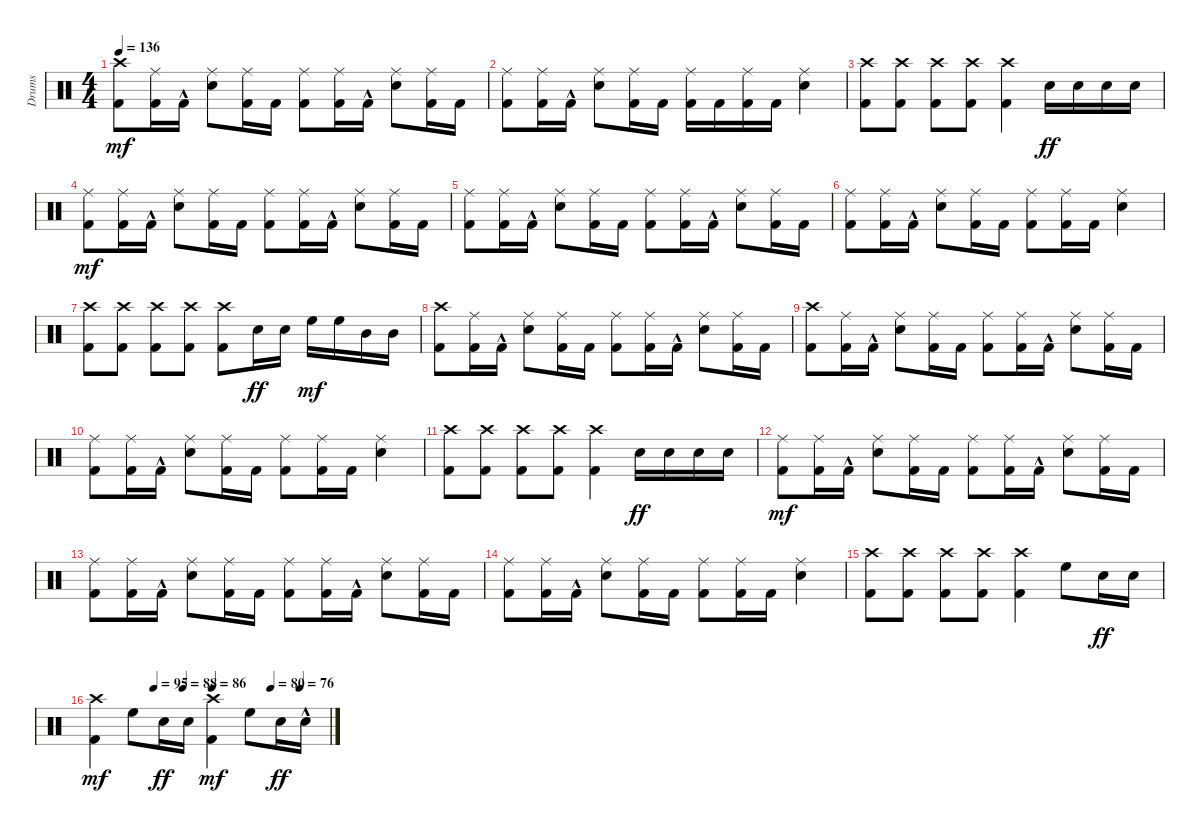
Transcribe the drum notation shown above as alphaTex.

\track ("Drums" "Drums") {instrument percussion}
\staff {score}
\articulation defaults
\ts (4 4)
\tempo 136
\clef neutral
\ks c
("Kick (hit) 2" "Crash high (hit)").8{dy mf} ("Kick (hit) 2" "Ride (middle)").16 "Kick (hit) 2"{hac}.16 ("Snare (hit) 2" "Ride (middle)").8 ("Kick (hit) 2" "Ride (middle)").16 "Kick (hit) 2".16 ("Kick (hit) 2" "Ride (middle)").8 ("Kick (hit) 2" "Ride (middle)").16 "Kick (hit) 2"{hac}.16 ("Snare (hit) 2" "Ride (middle)").8 ("Kick (hit) 2" "Ride (middle)").16 "Kick (hit) 2".16 |
("Kick (hit) 2" "Ride (middle)").8 ("Kick (hit) 2" "Ride (middle)").16 "Kick (hit) 2"{hac}.16 ("Snare (hit) 2" "Ride (middle)").8 ("Kick (hit) 2" "Ride (middle)").16 "Kick (hit) 2".16 ("Kick (hit) 2" "Ride (middle)").16 "Kick (hit) 2".16 ("Kick (hit) 2" "Ride (middle)").16 "Kick (hit) 2".16 ("Snare (hit) 2" "Ride (middle)").4 |
("Kick (hit) 2" "Crash high (hit)").8 ("Kick (hit) 2" "Crash high (hit)").8 ("Kick (hit) 2" "Crash high (hit)").8 ("Kick (hit) 2" "Crash high (hit)").8 ("Kick (hit) 2" "Crash high (hit)").4 "Snare (hit) 2".16{dy ff} "Snare (hit) 2".16 "Snare (hit) 2".16 "Snare (hit) 2".16 |
("Kick (hit) 2" "Ride (middle)").8{dy mf} ("Kick (hit) 2" "Ride (middle)").16 "Kick (hit) 2"{hac}.16 ("Snare (hit) 2" "Ride (middle)").8 ("Kick (hit) 2" "Ride (middle)").16 "Kick (hit) 2".16 ("Kick (hit) 2" "Ride (middle)").8 ("Kick (hit) 2" "Ride (middle)").16 "Kick (hit) 2"{hac}.16 ("Snare (hit) 2" "Ride (middle)").8 ("Kick (hit) 2" "Ride (middle)").16 "Kick (hit) 2".16 |
("Kick (hit) 2" "Ride (middle)").8 ("Kick (hit) 2" "Ride (middle)").16 "Kick (hit) 2"{hac}.16 ("Snare (hit) 2" "Ride (middle)").8 ("Kick (hit) 2" "Ride (middle)").16 "Kick (hit) 2".16 ("Kick (hit) 2" "Ride (middle)").8 ("Kick (hit) 2" "Ride (middle)").16 "Kick (hit) 2"{hac}.16 ("Snare (hit) 2" "Ride (middle)").8 ("Kick (hit) 2" "Ride (middle)").16 "Kick (hit) 2".16 |
("Kick (hit) 2" "Ride (middle)").8 ("Kick (hit) 2" "Ride (middle)").16 "Kick (hit) 2"{hac}.16 ("Snare (hit) 2" "Ride (middle)").8 ("Kick (hit) 2" "Ride (middle)").16 "Kick (hit) 2".16 ("Kick (hit) 2" "Ride (middle)").8 ("Kick (hit) 2" "Ride (middle)").16 "Kick (hit) 2".16 ("Snare (hit) 2" "Ride (middle)").4 |
("Kick (hit) 2" "Crash high (hit)").8 ("Kick (hit) 2" "Crash high (hit)").8 ("Kick (hit) 2" "Crash high (hit)").8 ("Kick (hit) 2" "Crash high (hit)").8 ("Kick (hit) 2" "Crash high (hit)").8 "Snare (hit) 2".16{dy ff} "Snare (hit) 2".16 "High Floor Tom (hit)".16{dy mf} "High Floor Tom (hit)".16 "Mid Tom (hit)".16 "Mid Tom (hit)".16 |
("Kick (hit) 2" "Crash high (hit)").8 ("Kick (hit) 2" "Ride (middle)").16 "Kick (hit) 2"{hac}.16 ("Snare (hit) 2" "Ride (middle)").8 ("Kick (hit) 2" "Ride (middle)").16 "Kick (hit) 2".16 ("Kick (hit) 2" "Ride (middle)").8 ("Kick (hit) 2" "Ride (middle)").16 "Kick (hit) 2"{hac}.16 ("Snare (hit) 2" "Ride (middle)").8 ("Kick (hit) 2" "Ride (middle)").16 "Kick (hit) 2".16 |
("Kick (hit) 2" "Crash high (hit)").8 ("Kick (hit) 2" "Ride (middle)").16 "Kick (hit) 2"{hac}.16 ("Snare (hit) 2" "Ride (middle)").8 ("Kick (hit) 2" "Ride (middle)").16 "Kick (hit) 2".16 ("Kick (hit) 2" "Ride (middle)").8 ("Kick (hit) 2" "Ride (middle)").16 "Kick (hit) 2"{hac}.16 ("Snare (hit) 2" "Ride (middle)").8 ("Kick (hit) 2" "Ride (middle)").16 "Kick (hit) 2".16 |
("Kick (hit) 2" "Ride (middle)").8 ("Kick (hit) 2" "Ride (middle)").16 "Kick (hit) 2"{hac}.16 ("Snare (hit) 2" "Ride (middle)").8 ("Kick (hit) 2" "Ride (middle)").16 "Kick (hit) 2".16 ("Kick (hit) 2" "Ride (middle)").8 ("Kick (hit) 2" "Ride (middle)").16 "Kick (hit) 2".16 ("Snare (hit) 2" "Ride (middle)").4 |
("Kick (hit) 2" "Crash high (hit)").8 ("Kick (hit) 2" "Crash high (hit)").8 ("Kick (hit) 2" "Crash high (hit)").8 ("Kick (hit) 2" "Crash high (hit)").8 ("Kick (hit) 2" "Crash high (hit)").4 "Snare (hit) 2".16{dy ff} "Snare (hit) 2".16 "Snare (hit) 2".16 "Snare (hit) 2".16 |
("Kick (hit) 2" "Ride (middle)").8{dy mf} ("Kick (hit) 2" "Ride (middle)").16 "Kick (hit) 2"{hac}.16 ("Snare (hit) 2" "Ride (middle)").8 ("Kick (hit) 2" "Ride (middle)").16 "Kick (hit) 2".16 ("Kick (hit) 2" "Ride (middle)").8 ("Kick (hit) 2" "Ride (middle)").16 "Kick (hit) 2"{hac}.16 ("Snare (hit) 2" "Ride (middle)").8 ("Kick (hit) 2" "Ride (middle)").16 "Kick (hit) 2".16 |
("Kick (hit) 2" "Ride (middle)").8 ("Kick (hit) 2" "Ride (middle)").16 "Kick (hit) 2"{hac}.16 ("Snare (hit) 2" "Ride (middle)").8 ("Kick (hit) 2" "Ride (middle)").16 "Kick (hit) 2".16 ("Kick (hit) 2" "Ride (middle)").8 ("Kick (hit) 2" "Ride (middle)").16 "Kick (hit) 2"{hac}.16 ("Snare (hit) 2" "Ride (middle)").8 ("Kick (hit) 2" "Ride (middle)").16 "Kick (hit) 2".16 |
("Kick (hit) 2" "Ride (middle)").8 ("Kick (hit) 2" "Ride (middle)").16 "Kick (hit) 2"{hac}.16 ("Snare (hit) 2" "Ride (middle)").8 ("Kick (hit) 2" "Ride (middle)").16 "Kick (hit) 2".16 ("Kick (hit) 2" "Ride (middle)").8 ("Kick (hit) 2" "Ride (middle)").16 "Kick (hit) 2".16 ("Snare (hit) 2" "Ride (middle)").4 |
("Kick (hit) 2" "Crash high (hit)").8 ("Kick (hit) 2" "Crash high (hit)").8 ("Kick (hit) 2" "Crash high (hit)").8 ("Kick (hit) 2" "Crash high (hit)").8 ("Kick (hit) 2" "Crash high (hit)").4 "High Floor Tom (hit)".8 "Snare (hit) 2".16{dy ff} "Snare (hit) 2".16 |
\tempo (95 0.25)
\tempo (88 0.375)
\tempo (86 0.5)
\tempo (80 0.75)
\tempo (76 0.875)
("Kick (hit) 2" "Crash high (hit)").4{dy mf} "High Floor Tom (hit)".8 "Snare (hit) 2".16{dy ff} "Snare (hit) 2".16 ("Kick (hit) 2" "Crash high (hit)").4{dy mf} "High Floor Tom (hit)".8 "Snare (hit) 2".16{dy ff} "Snare (hit) 2"{hac}.16
